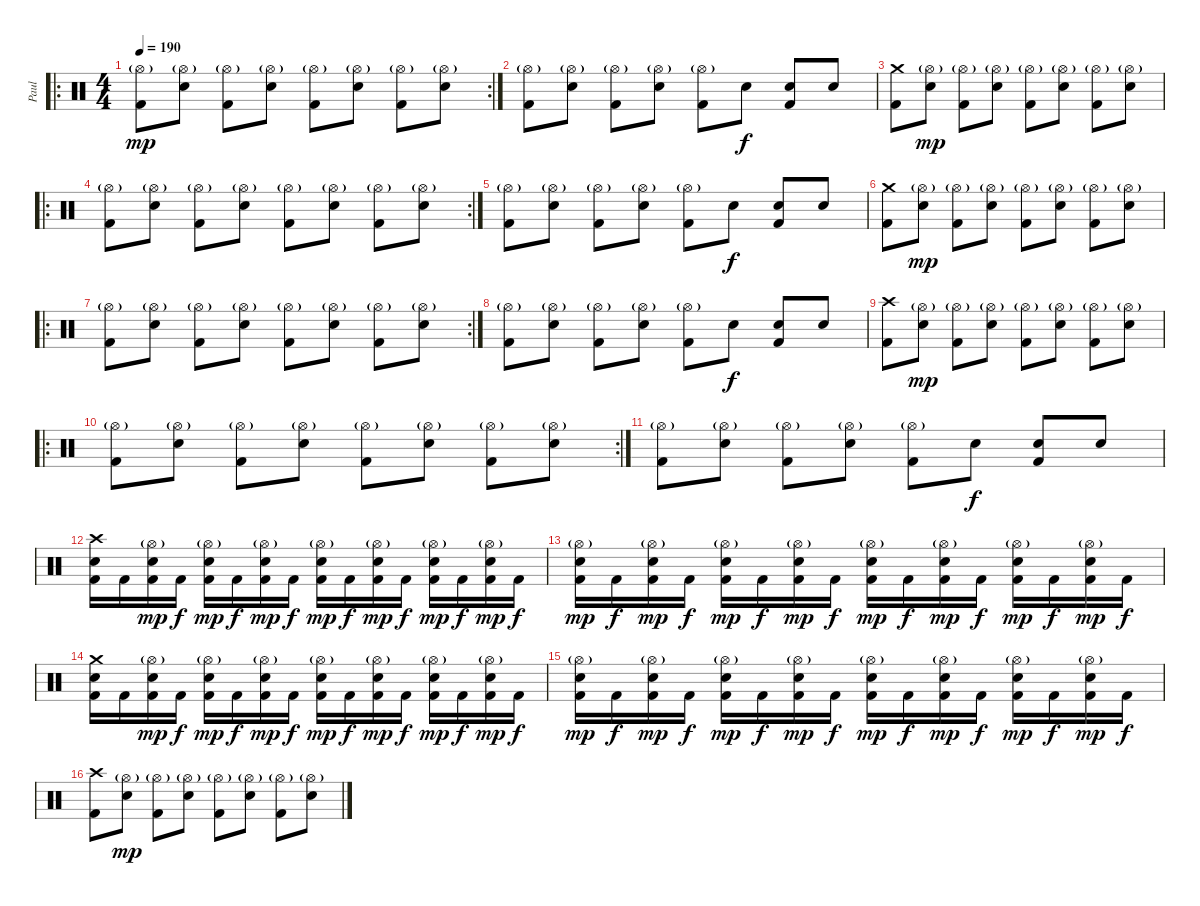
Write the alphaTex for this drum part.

\track ("Paul" "Paul") {instrument percussion}
\staff {score}
\articulation defaults
\ro
\rc 2
\ts (4 4)
\tempo 190
\clef neutral
\ks c
("Hi-Hat (open)"{g} "Kick (hit) 2").8{dy mp} ("Hi-Hat (open)"{g} "Electric Snare (hit)").8 ("Hi-Hat (open)"{g} "Kick (hit) 2").8 ("Hi-Hat (open)"{g} "Electric Snare (hit)").8 ("Hi-Hat (open)"{g} "Kick (hit) 2").8 ("Hi-Hat (open)"{g} "Electric Snare (hit)").8 ("Hi-Hat (open)"{g} "Kick (hit) 2").8 ("Hi-Hat (open)"{g} "Electric Snare (hit)").8 |
("Hi-Hat (open)"{g} "Kick (hit) 2").8 ("Electric Snare (hit)" "Hi-Hat (open)"{g}).8 ("Hi-Hat (open)"{g} "Kick (hit) 2").8 ("Electric Snare (hit)" "Hi-Hat (open)"{g}).8 ("Hi-Hat (open)"{g} "Kick (hit) 2").8 "Electric Snare (hit)".8{dy f} ("Electric Snare (hit)" "Kick (hit) 2").8 "Electric Snare (hit)".8 |
("Crash medium (hit)" "Kick (hit) 2").8 ("Hi-Hat (open)"{g} "Electric Snare (hit)").8{dy mp} ("Hi-Hat (open)"{g} "Kick (hit) 2").8 ("Hi-Hat (open)"{g} "Electric Snare (hit)").8 ("Hi-Hat (open)"{g} "Kick (hit) 2").8 ("Hi-Hat (open)"{g} "Electric Snare (hit)").8 ("Hi-Hat (open)"{g} "Kick (hit) 2").8 ("Hi-Hat (open)"{g} "Electric Snare (hit)").8 |
\ro
\rc 2
("Hi-Hat (open)"{g} "Kick (hit) 2").8 ("Hi-Hat (open)"{g} "Electric Snare (hit)").8 ("Hi-Hat (open)"{g} "Kick (hit) 2").8 ("Hi-Hat (open)"{g} "Electric Snare (hit)").8 ("Hi-Hat (open)"{g} "Kick (hit) 2").8 ("Hi-Hat (open)"{g} "Electric Snare (hit)").8 ("Hi-Hat (open)"{g} "Kick (hit) 2").8 ("Hi-Hat (open)"{g} "Electric Snare (hit)").8 |
("Hi-Hat (open)"{g} "Kick (hit) 2").8 ("Electric Snare (hit)" "Hi-Hat (open)"{g}).8 ("Hi-Hat (open)"{g} "Kick (hit) 2").8 ("Electric Snare (hit)" "Hi-Hat (open)"{g}).8 ("Hi-Hat (open)"{g} "Kick (hit) 2").8 "Electric Snare (hit)".8{dy f} ("Electric Snare (hit)" "Kick (hit) 2").8 "Electric Snare (hit)".8 |
("Crash medium (hit)" "Kick (hit) 2").8 ("Hi-Hat (open)"{g} "Electric Snare (hit)").8{dy mp} ("Hi-Hat (open)"{g} "Kick (hit) 2").8 ("Hi-Hat (open)"{g} "Electric Snare (hit)").8 ("Hi-Hat (open)"{g} "Kick (hit) 2").8 ("Hi-Hat (open)"{g} "Electric Snare (hit)").8 ("Hi-Hat (open)"{g} "Kick (hit) 2").8 ("Hi-Hat (open)"{g} "Electric Snare (hit)").8 |
\ro
\rc 2
("Hi-Hat (open)"{g} "Kick (hit) 2").8 ("Hi-Hat (open)"{g} "Electric Snare (hit)").8 ("Hi-Hat (open)"{g} "Kick (hit) 2").8 ("Hi-Hat (open)"{g} "Electric Snare (hit)").8 ("Hi-Hat (open)"{g} "Kick (hit) 2").8 ("Hi-Hat (open)"{g} "Electric Snare (hit)").8 ("Hi-Hat (open)"{g} "Kick (hit) 2").8 ("Hi-Hat (open)"{g} "Electric Snare (hit)").8 |
("Hi-Hat (open)"{g} "Kick (hit) 2").8 ("Electric Snare (hit)" "Hi-Hat (open)"{g}).8 ("Hi-Hat (open)"{g} "Kick (hit) 2").8 ("Electric Snare (hit)" "Hi-Hat (open)"{g}).8 ("Hi-Hat (open)"{g} "Kick (hit) 2").8 "Electric Snare (hit)".8{dy f} ("Electric Snare (hit)" "Kick (hit) 2").8 "Electric Snare (hit)".8 |
("Crash high (hit)" "Kick (hit) 2").8 ("Hi-Hat (open)"{g} "Electric Snare (hit)").8{dy mp} ("Hi-Hat (open)"{g} "Kick (hit) 2").8 ("Hi-Hat (open)"{g} "Electric Snare (hit)").8 ("Hi-Hat (open)"{g} "Kick (hit) 2").8 ("Hi-Hat (open)"{g} "Electric Snare (hit)").8 ("Hi-Hat (open)"{g} "Kick (hit) 2").8 ("Hi-Hat (open)"{g} "Electric Snare (hit)").8 |
\ro
\rc 2
("Hi-Hat (open)"{g} "Kick (hit) 2").8 ("Hi-Hat (open)"{g} "Electric Snare (hit)").8 ("Hi-Hat (open)"{g} "Kick (hit) 2").8 ("Hi-Hat (open)"{g} "Electric Snare (hit)").8 ("Hi-Hat (open)"{g} "Kick (hit) 2").8 ("Hi-Hat (open)"{g} "Electric Snare (hit)").8 ("Hi-Hat (open)"{g} "Kick (hit) 2").8 ("Hi-Hat (open)"{g} "Electric Snare (hit)").8 |
("Hi-Hat (open)"{g} "Kick (hit) 2").8 ("Electric Snare (hit)" "Hi-Hat (open)"{g}).8 ("Hi-Hat (open)"{g} "Kick (hit) 2").8 ("Electric Snare (hit)" "Hi-Hat (open)"{g}).8 ("Hi-Hat (open)"{g} "Kick (hit) 2").8 "Electric Snare (hit)".8{dy f} ("Electric Snare (hit)" "Kick (hit) 2").8 "Electric Snare (hit)".8 |
("Crash high (hit)" "Electric Snare (hit)" "Kick (hit) 2").16 "Kick (hit) 2".16 ("Hi-Hat (open)"{g} "Electric Snare (hit)" "Kick (hit) 2").16{dy mp} "Kick (hit) 2".16{dy f} ("Hi-Hat (open)"{g} "Electric Snare (hit)" "Kick (hit) 2").16{dy mp} "Kick (hit) 2".16{dy f} ("Hi-Hat (open)"{g} "Electric Snare (hit)" "Kick (hit) 2").16{dy mp} "Kick (hit) 2".16{dy f} ("Hi-Hat (open)"{g} "Electric Snare (hit)" "Kick (hit) 2").16{dy mp} "Kick (hit) 2".16{dy f} ("Hi-Hat (open)"{g} "Electric Snare (hit)" "Kick (hit) 2").16{dy mp} "Kick (hit) 2".16{dy f} ("Hi-Hat (open)"{g} "Electric Snare (hit)" "Kick (hit) 2").16{dy mp} "Kick (hit) 2".16{dy f} ("Hi-Hat (open)"{g} "Electric Snare (hit)" "Kick (hit) 2").16{dy mp} "Kick (hit) 2".16{dy f} |
("Hi-Hat (open)"{g} "Electric Snare (hit)" "Kick (hit) 2").16{dy mp} "Kick (hit) 2".16{dy f} ("Hi-Hat (open)"{g} "Electric Snare (hit)" "Kick (hit) 2").16{dy mp} "Kick (hit) 2".16{dy f} ("Hi-Hat (open)"{g} "Electric Snare (hit)" "Kick (hit) 2").16{dy mp} "Kick (hit) 2".16{dy f} ("Hi-Hat (open)"{g} "Electric Snare (hit)" "Kick (hit) 2").16{dy mp} "Kick (hit) 2".16{dy f} ("Hi-Hat (open)"{g} "Electric Snare (hit)" "Kick (hit) 2").16{dy mp} "Kick (hit) 2".16{dy f} ("Hi-Hat (open)"{g} "Electric Snare (hit)" "Kick (hit) 2").16{dy mp} "Kick (hit) 2".16{dy f} ("Hi-Hat (open)"{g} "Electric Snare (hit)" "Kick (hit) 2").16{dy mp} "Kick (hit) 2".16{dy f} ("Hi-Hat (open)"{g} "Electric Snare (hit)" "Kick (hit) 2").16{dy mp} "Kick (hit) 2".16{dy f} |
("Crash medium (hit)" "Electric Snare (hit)" "Kick (hit) 2").16 "Kick (hit) 2".16 ("Hi-Hat (open)"{g} "Electric Snare (hit)" "Kick (hit) 2").16{dy mp} "Kick (hit) 2".16{dy f} ("Hi-Hat (open)"{g} "Electric Snare (hit)" "Kick (hit) 2").16{dy mp} "Kick (hit) 2".16{dy f} ("Hi-Hat (open)"{g} "Electric Snare (hit)" "Kick (hit) 2").16{dy mp} "Kick (hit) 2".16{dy f} ("Hi-Hat (open)"{g} "Electric Snare (hit)" "Kick (hit) 2").16{dy mp} "Kick (hit) 2".16{dy f} ("Hi-Hat (open)"{g} "Electric Snare (hit)" "Kick (hit) 2").16{dy mp} "Kick (hit) 2".16{dy f} ("Hi-Hat (open)"{g} "Electric Snare (hit)" "Kick (hit) 2").16{dy mp} "Kick (hit) 2".16{dy f} ("Hi-Hat (open)"{g} "Electric Snare (hit)" "Kick (hit) 2").16{dy mp} "Kick (hit) 2".16{dy f} |
("Hi-Hat (open)"{g} "Electric Snare (hit)" "Kick (hit) 2").16{dy mp} "Kick (hit) 2".16{dy f} ("Hi-Hat (open)"{g} "Electric Snare (hit)" "Kick (hit) 2").16{dy mp} "Kick (hit) 2".16{dy f} ("Hi-Hat (open)"{g} "Electric Snare (hit)" "Kick (hit) 2").16{dy mp} "Kick (hit) 2".16{dy f} ("Hi-Hat (open)"{g} "Electric Snare (hit)" "Kick (hit) 2").16{dy mp} "Kick (hit) 2".16{dy f} ("Hi-Hat (open)"{g} "Electric Snare (hit)" "Kick (hit) 2").16{dy mp} "Kick (hit) 2".16{dy f} ("Hi-Hat (open)"{g} "Electric Snare (hit)" "Kick (hit) 2").16{dy mp} "Kick (hit) 2".16{dy f} ("Hi-Hat (open)"{g} "Electric Snare (hit)" "Kick (hit) 2").16{dy mp} "Kick (hit) 2".16{dy f} ("Hi-Hat (open)"{g} "Electric Snare (hit)" "Kick (hit) 2").16{dy mp} "Kick (hit) 2".16{dy f} |
("Crash high (hit)" "Kick (hit) 2").8 ("Hi-Hat (open)"{g} "Electric Snare (hit)").8{dy mp} ("Hi-Hat (open)"{g} "Kick (hit) 2").8 ("Hi-Hat (open)"{g} "Electric Snare (hit)").8 ("Hi-Hat (open)"{g} "Kick (hit) 2").8 ("Hi-Hat (open)"{g} "Electric Snare (hit)").8 ("Hi-Hat (open)"{g} "Kick (hit) 2").8 ("Hi-Hat (open)"{g} "Electric Snare (hit)").8
